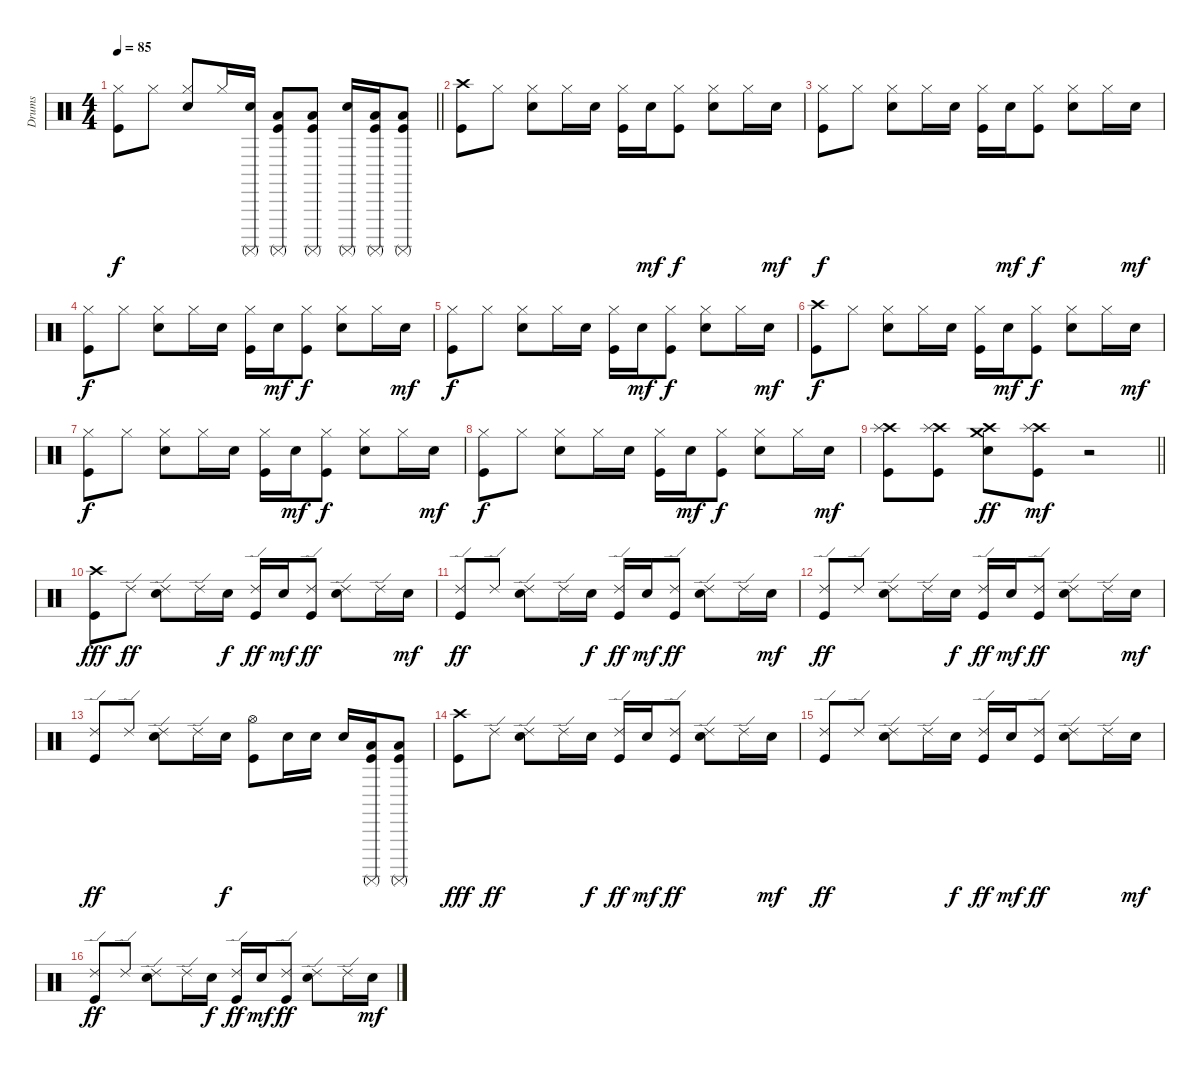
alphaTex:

\track ("Drums" "Drums") {instrument percussion}
\staff {score}
\articulation defaults
\ts (4 4)
\tempo 85
\clef neutral
\barLineRight lightlight
\ks c
("Hi-Hat (closed)" "Kick (hit)").8{dy f} "Hi-Hat (closed)".8 ("Hi-Hat (closed)" "Snare (hit) 2").8 "Hi-Hat (closed)".16 ("Surdo (mute)" "Snare (hit) 2").16 ("Surdo (mute)" "Low Floor Tom (hit)" "Kick (hit)").8 ("Surdo (mute)" "Low Floor Tom (hit)" "Kick (hit)").8 ("Surdo (mute)" "Snare (hit) 2").16 ("Surdo (mute)" "Low Floor Tom (hit)" "Kick (hit)").16 ("Surdo (mute)" "Low Floor Tom (hit)" "Kick (hit)").8 |
("Crash high (hit)" "Kick (hit)").8 "Hi-Hat (closed)".8 ("Hi-Hat (closed)" "Snare (hit) 2").8 "Hi-Hat (closed)".16 "Snare (hit) 2".16 ("Hi-Hat (closed)" "Kick (hit)").16 "Snare (hit) 2".16{dy mf} ("Hi-Hat (closed)" "Kick (hit)").8{dy f} ("Hi-Hat (closed)" "Snare (hit) 2").8 "Hi-Hat (closed)".16 "Snare (hit) 2".16{dy mf} |
("Hi-Hat (closed)" "Kick (hit)").8{dy f} "Hi-Hat (closed)".8 ("Hi-Hat (closed)" "Snare (hit) 2").8 "Hi-Hat (closed)".16 "Snare (hit) 2".16 ("Hi-Hat (closed)" "Kick (hit)").16 "Snare (hit) 2".16{dy mf} ("Hi-Hat (closed)" "Kick (hit)").8{dy f} ("Hi-Hat (closed)" "Snare (hit) 2").8 "Hi-Hat (closed)".16 "Snare (hit) 2".16{dy mf} |
("Hi-Hat (closed)" "Kick (hit)").8{dy f} "Hi-Hat (closed)".8 ("Hi-Hat (closed)" "Snare (hit) 2").8 "Hi-Hat (closed)".16 "Snare (hit) 2".16 ("Hi-Hat (closed)" "Kick (hit)").16 "Snare (hit) 2".16{dy mf} ("Hi-Hat (closed)" "Kick (hit)").8{dy f} ("Hi-Hat (closed)" "Snare (hit) 2").8 "Hi-Hat (closed)".16 "Snare (hit) 2".16{dy mf} |
("Hi-Hat (closed)" "Kick (hit)").8{dy f} "Hi-Hat (closed)".8 ("Hi-Hat (closed)" "Snare (hit) 2").8 "Hi-Hat (closed)".16 "Snare (hit) 2".16 ("Hi-Hat (closed)" "Kick (hit)").16 "Snare (hit) 2".16{dy mf} ("Hi-Hat (closed)" "Kick (hit)").8{dy f} ("Hi-Hat (closed)" "Snare (hit) 2").8 "Hi-Hat (closed)".16 "Snare (hit) 2".16{dy mf} |
("Crash high (hit)" "Kick (hit)").8{dy f} "Hi-Hat (closed)".8 ("Hi-Hat (closed)" "Snare (hit) 2").8 "Hi-Hat (closed)".16 "Snare (hit) 2".16 ("Hi-Hat (closed)" "Kick (hit)").16 "Snare (hit) 2".16{dy mf} ("Hi-Hat (closed)" "Kick (hit)").8{dy f} ("Hi-Hat (closed)" "Snare (hit) 2").8 "Hi-Hat (closed)".16 "Snare (hit) 2".16{dy mf} |
("Hi-Hat (closed)" "Kick (hit)").8{dy f} "Hi-Hat (closed)".8 ("Hi-Hat (closed)" "Snare (hit) 2").8 "Hi-Hat (closed)".16 "Snare (hit) 2".16 ("Hi-Hat (closed)" "Kick (hit)").16 "Snare (hit) 2".16{dy mf} ("Hi-Hat (closed)" "Kick (hit)").8{dy f} ("Hi-Hat (closed)" "Snare (hit) 2").8 "Hi-Hat (closed)".16 "Snare (hit) 2".16{dy mf} |
("Hi-Hat (closed)" "Kick (hit)").8{dy f} "Hi-Hat (closed)".8 ("Hi-Hat (closed)" "Snare (hit) 2").8 "Hi-Hat (closed)".16 "Snare (hit) 2".16 ("Hi-Hat (closed)" "Kick (hit)").16 "Snare (hit) 2".16{dy mf} ("Hi-Hat (closed)" "Kick (hit)").8{dy f} ("Hi-Hat (closed)" "Snare (hit) 2").8 "Hi-Hat (closed)".16 "Snare (hit) 2".16{dy mf} |
\barLineRight lightlight
("Crash high (hit)" "Splash (hit)" "Kick (hit)").8 ("Crash high (hit)" "Splash (hit)" "Kick (hit)").8 ("Crash high (hit)" "Crash medium (hit)" "Snare (hit) 2").8{dy ff} ("Crash high (hit)" "Splash (hit)" "Kick (hit)").8{dy mf} r.2 |
("Crash high (hit)" "Kick (hit)").8{dy fff} "Ride (edge) 2".8{dy ff} ("Ride (edge) 2" "Snare (hit) 2").8 "Ride (edge) 2".16 "Snare (hit) 2".16{dy f} ("Ride (edge) 2" "Kick (hit)").16{dy ff} "Snare (hit) 2".16{dy mf} ("Ride (edge) 2" "Kick (hit)").8{dy ff} ("Ride (edge) 2" "Snare (hit) 2").8 "Ride (edge) 2".16 "Snare (hit) 2".16{dy mf} |
("Ride (edge) 2" "Kick (hit)").8{dy ff} "Ride (edge) 2".8 ("Ride (edge) 2" "Snare (hit) 2").8 "Ride (edge) 2".16 "Snare (hit) 2".16{dy f} ("Ride (edge) 2" "Kick (hit)").16{dy ff} "Snare (hit) 2".16{dy mf} ("Ride (edge) 2" "Kick (hit)").8{dy ff} ("Ride (edge) 2" "Snare (hit) 2").8 "Ride (edge) 2".16 "Snare (hit) 2".16{dy mf} |
("Ride (edge) 2" "Kick (hit)").8{dy ff} "Ride (edge) 2".8 ("Ride (edge) 2" "Snare (hit) 2").8 "Ride (edge) 2".16 "Snare (hit) 2".16{dy f} ("Ride (edge) 2" "Kick (hit)").16{dy ff} "Snare (hit) 2".16{dy mf} ("Ride (edge) 2" "Kick (hit)").8{dy ff} ("Ride (edge) 2" "Snare (hit) 2").8 "Ride (edge) 2".16 "Snare (hit) 2".16{dy mf} |
("Ride (edge) 2" "Kick (hit)").8{dy ff} "Ride (edge) 2".8 ("Ride (edge) 2" "Snare (hit) 2").8 "Ride (edge) 2".16 "Snare (hit) 2".16{dy f} ("Hi-Hat (open)" "Kick (hit)").8 "Snare (hit) 2".16 "Snare (hit) 2".16 "Snare (hit) 2".16 ("Surdo (mute)" "Low Floor Tom (hit)" "Kick (hit)").16 ("Surdo (mute)" "Low Floor Tom (hit)" "Kick (hit)").8 |
("Crash high (hit)" "Kick (hit)").8{dy fff} "Ride (edge) 2".8{dy ff} ("Ride (edge) 2" "Snare (hit) 2").8 "Ride (edge) 2".16 "Snare (hit) 2".16{dy f} ("Ride (edge) 2" "Kick (hit)").16{dy ff} "Snare (hit) 2".16{dy mf} ("Ride (edge) 2" "Kick (hit)").8{dy ff} ("Ride (edge) 2" "Snare (hit) 2").8 "Ride (edge) 2".16 "Snare (hit) 2".16{dy mf} |
("Ride (edge) 2" "Kick (hit)").8{dy ff} "Ride (edge) 2".8 ("Ride (edge) 2" "Snare (hit) 2").8 "Ride (edge) 2".16 "Snare (hit) 2".16{dy f} ("Ride (edge) 2" "Kick (hit)").16{dy ff} "Snare (hit) 2".16{dy mf} ("Ride (edge) 2" "Kick (hit)").8{dy ff} ("Ride (edge) 2" "Snare (hit) 2").8 "Ride (edge) 2".16 "Snare (hit) 2".16{dy mf} |
("Ride (edge) 2" "Kick (hit)").8{dy ff} "Ride (edge) 2".8 ("Ride (edge) 2" "Snare (hit) 2").8 "Ride (edge) 2".16 "Snare (hit) 2".16{dy f} ("Ride (edge) 2" "Kick (hit)").16{dy ff} "Snare (hit) 2".16{dy mf} ("Ride (edge) 2" "Kick (hit)").8{dy ff} ("Ride (edge) 2" "Snare (hit) 2").8 "Ride (edge) 2".16 "Snare (hit) 2".16{dy mf}
